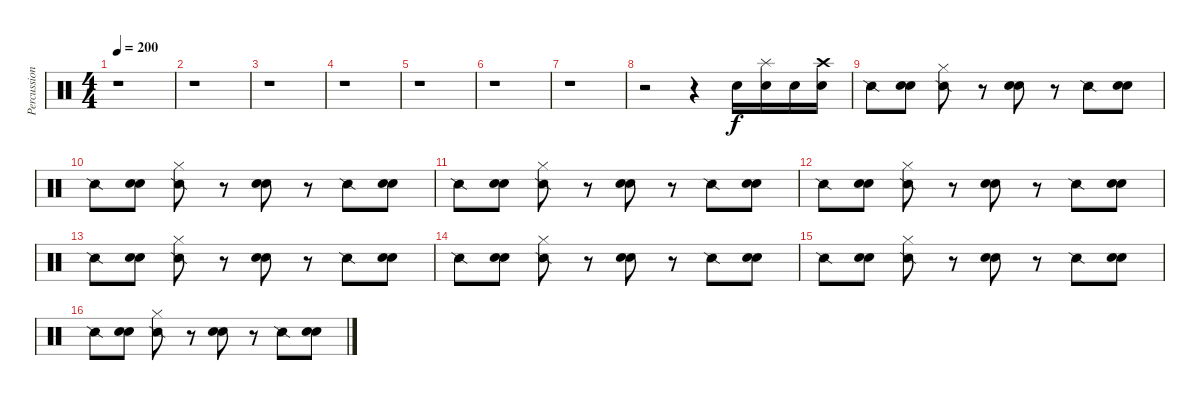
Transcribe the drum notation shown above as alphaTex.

\track ("Percussion" "Percussion") {instrument percussion}
\staff {score}
\articulation defaults
\ts (4 4)
\tempo 200
\clef neutral
\ks c
r.1{dy f} |
r.1 |
r.1 |
r.1 |
r.1 |
r.1 |
r.1 |
r.2 r.4 "Electric Snare (hit)".16 ("Splash (hit)" "Electric Snare (hit)").16 "Electric Snare (hit)".16 ("Crash high (hit)" "Electric Snare (hit)").16 |
"Snare (side stick) 2".8 ("Hand Clap (hit)" "Electric Snare (hit)").8 ("Snare (side stick) 2" "Hi-Hat (closed)").8 r.8 ("Hand Clap (hit)" "Electric Snare (hit)").8 r.8 "Snare (side stick) 2".8 ("Hand Clap (hit)" "Electric Snare (hit)").8 |
"Snare (side stick) 2".8 ("Hand Clap (hit)" "Electric Snare (hit)").8 ("Snare (side stick) 2" "Hi-Hat (closed)").8 r.8 ("Hand Clap (hit)" "Electric Snare (hit)").8 r.8 "Snare (side stick) 2".8 ("Hand Clap (hit)" "Electric Snare (hit)").8 |
"Snare (side stick) 2".8 ("Hand Clap (hit)" "Electric Snare (hit)").8 ("Snare (side stick) 2" "Hi-Hat (closed)").8 r.8 ("Hand Clap (hit)" "Electric Snare (hit)").8 r.8 "Snare (side stick) 2".8 ("Hand Clap (hit)" "Electric Snare (hit)").8 |
"Snare (side stick) 2".8 ("Hand Clap (hit)" "Electric Snare (hit)").8 ("Snare (side stick) 2" "Hi-Hat (closed)").8 r.8 ("Hand Clap (hit)" "Electric Snare (hit)").8 r.8 "Snare (side stick) 2".8 ("Hand Clap (hit)" "Electric Snare (hit)").8 |
"Snare (side stick) 2".8 ("Hand Clap (hit)" "Electric Snare (hit)").8 ("Snare (side stick) 2" "Hi-Hat (closed)").8 r.8 ("Hand Clap (hit)" "Electric Snare (hit)").8 r.8 "Snare (side stick) 2".8 ("Hand Clap (hit)" "Electric Snare (hit)").8 |
"Snare (side stick) 2".8 ("Hand Clap (hit)" "Electric Snare (hit)").8 ("Snare (side stick) 2" "Hi-Hat (closed)").8 r.8 ("Hand Clap (hit)" "Electric Snare (hit)").8 r.8 "Snare (side stick) 2".8 ("Hand Clap (hit)" "Electric Snare (hit)").8 |
"Snare (side stick) 2".8 ("Hand Clap (hit)" "Electric Snare (hit)").8 ("Snare (side stick) 2" "Hi-Hat (closed)").8 r.8 ("Hand Clap (hit)" "Electric Snare (hit)").8 r.8 "Snare (side stick) 2".8 ("Hand Clap (hit)" "Electric Snare (hit)").8 |
"Snare (side stick) 2".8 ("Hand Clap (hit)" "Electric Snare (hit)").8 ("Snare (side stick) 2" "Hi-Hat (closed)").8 r.8 ("Hand Clap (hit)" "Electric Snare (hit)").8 r.8 "Snare (side stick) 2".8 ("Hand Clap (hit)" "Electric Snare (hit)").8
